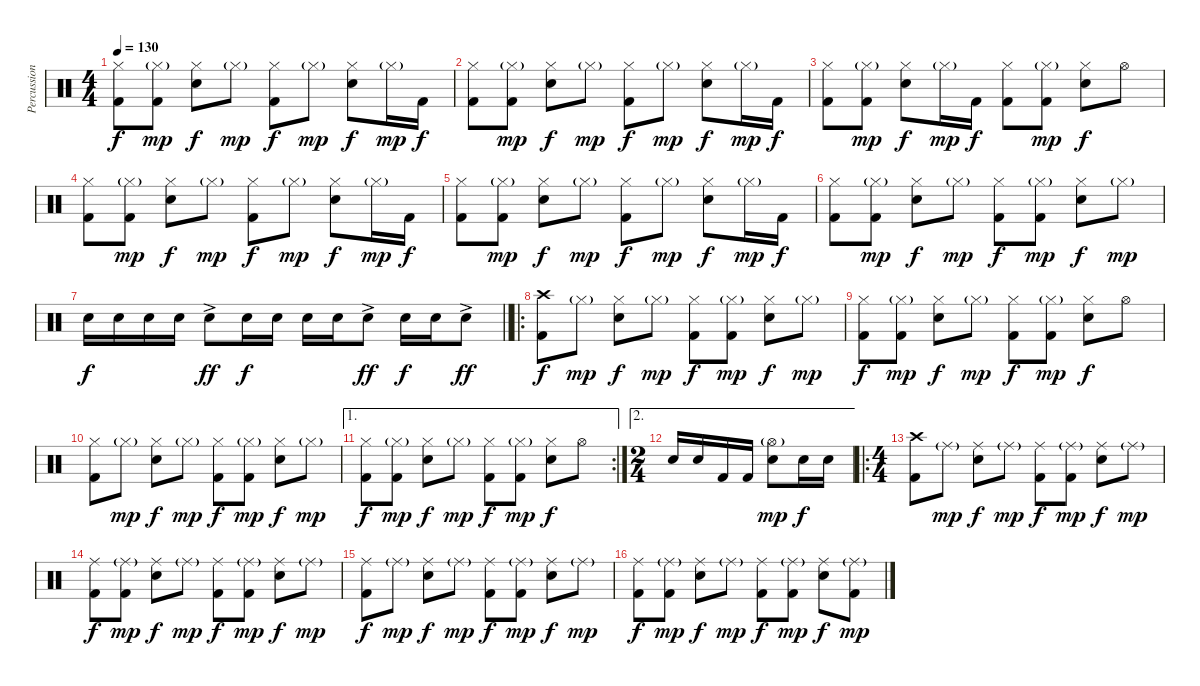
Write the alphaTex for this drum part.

\track ("Percussion" "Percussion") {instrument percussion}
\staff {score}
\articulation defaults
\ts (4 4)
\tempo 130
\clef neutral
\ks c
("Hi-Hat (closed)" "Kick (hit) 2").8{dy f} ("Hi-Hat (closed)"{g} "Kick (hit) 2").8{dy mp} ("Hi-Hat (closed)" "Electric Snare (hit)").8{dy f} "Hi-Hat (closed)"{g}.8{dy mp} ("Hi-Hat (closed)" "Kick (hit) 2").8{dy f} "Hi-Hat (closed)"{g}.8{dy mp} ("Hi-Hat (closed)" "Electric Snare (hit)").8{dy f} "Hi-Hat (closed)"{g}.16{dy mp} "Kick (hit) 2".16{dy f} |
("Hi-Hat (closed)" "Kick (hit) 2").8 ("Hi-Hat (closed)"{g} "Kick (hit) 2").8{dy mp} ("Hi-Hat (closed)" "Electric Snare (hit)").8{dy f} "Hi-Hat (closed)"{g}.8{dy mp} ("Hi-Hat (closed)" "Kick (hit) 2").8{dy f} "Hi-Hat (closed)"{g}.8{dy mp} ("Hi-Hat (closed)" "Electric Snare (hit)").8{dy f} "Hi-Hat (closed)"{g}.16{dy mp} "Kick (hit) 2".16{dy f} |
("Hi-Hat (closed)" "Kick (hit) 2").8 ("Hi-Hat (closed)"{g} "Kick (hit) 2").8{dy mp} ("Hi-Hat (closed)" "Electric Snare (hit)").8{dy f} "Hi-Hat (closed)"{g}.16{dy mp} "Kick (hit) 2".16{dy f} ("Hi-Hat (closed)" "Kick (hit) 2").8 ("Hi-Hat (closed)"{g} "Kick (hit) 2").8{dy mp} ("Hi-Hat (closed)" "Electric Snare (hit)").8{dy f} "Hi-Hat (open)".8 |
("Hi-Hat (closed)" "Kick (hit) 2").8 ("Hi-Hat (closed)"{g} "Kick (hit) 2").8{dy mp} ("Hi-Hat (closed)" "Electric Snare (hit)").8{dy f} "Hi-Hat (closed)"{g}.8{dy mp} ("Hi-Hat (closed)" "Kick (hit) 2").8{dy f} "Hi-Hat (closed)"{g}.8{dy mp} ("Hi-Hat (closed)" "Electric Snare (hit)").8{dy f} "Hi-Hat (closed)"{g}.16{dy mp} "Kick (hit) 2".16{dy f} |
("Hi-Hat (closed)" "Kick (hit) 2").8 ("Hi-Hat (closed)"{g} "Kick (hit) 2").8{dy mp} ("Hi-Hat (closed)" "Electric Snare (hit)").8{dy f} "Hi-Hat (closed)"{g}.8{dy mp} ("Hi-Hat (closed)" "Kick (hit) 2").8{dy f} "Hi-Hat (closed)"{g}.8{dy mp} ("Hi-Hat (closed)" "Electric Snare (hit)").8{dy f} "Hi-Hat (closed)"{g}.16{dy mp} "Kick (hit) 2".16{dy f} |
("Hi-Hat (closed)" "Kick (hit) 2").8 ("Hi-Hat (closed)"{g} "Kick (hit) 2").8{dy mp} ("Hi-Hat (closed)" "Electric Snare (hit)").8{dy f} "Hi-Hat (closed)"{g}.8{dy mp} ("Hi-Hat (closed)" "Kick (hit) 2").8{dy f} ("Hi-Hat (closed)"{g} "Kick (hit) 2").8{dy mp} ("Hi-Hat (closed)" "Electric Snare (hit)").8{dy f} "Hi-Hat (closed)"{g}.8{dy mp} |
\barLineRight lightlight "Electric Snare (hit)".16{dy f} "Electric Snare (hit)".16 "Electric Snare (hit)".16 "Electric Snare (hit)".16 "Electric Snare (hit)"{ac}.8{dy ff} "Electric Snare (hit)".16{dy f} "Electric Snare (hit)".16 "Electric Snare (hit)".16 "Electric Snare (hit)".16 "Electric Snare (hit)"{ac}.8{dy ff} "Electric Snare (hit)".16{dy f} "Electric Snare (hit)".16 "Electric Snare (hit)"{ac}.8{dy ff}
|
\ro
("Crash high (hit)" "Kick (hit) 2").8{dy f} "Hi-Hat (closed)"{g}.8{dy mp} ("Hi-Hat (closed)" "Electric Snare (hit)").8{dy f} "Hi-Hat (closed)"{g}.8{dy mp} ("Hi-Hat (closed)" "Kick (hit) 2").8{dy f} ("Hi-Hat (closed)"{g} "Kick (hit) 2").8{dy mp} ("Hi-Hat (closed)" "Electric Snare (hit)").8{dy f} "Hi-Hat (closed)"{g}.8{dy mp} |
("Hi-Hat (closed)" "Kick (hit) 2").8{dy f} ("Hi-Hat (closed)"{g} "Kick (hit) 2").8{dy mp} ("Hi-Hat (closed)" "Electric Snare (hit)").8{dy f} "Hi-Hat (closed)"{g}.8{dy mp} ("Hi-Hat (closed)" "Kick (hit) 2").8{dy f} ("Hi-Hat (closed)"{g} "Kick (hit) 2").8{dy mp} ("Hi-Hat (closed)" "Electric Snare (hit)").8{dy f} "Hi-Hat (open)".8 |
("Hi-Hat (closed)" "Kick (hit) 2").8 "Hi-Hat (closed)"{g}.8{dy mp} ("Hi-Hat (closed)" "Electric Snare (hit)").8{dy f} "Hi-Hat (closed)"{g}.8{dy mp} ("Hi-Hat (closed)" "Kick (hit) 2").8{dy f} ("Hi-Hat (closed)"{g} "Kick (hit) 2").8{dy mp} ("Hi-Hat (closed)" "Electric Snare (hit)").8{dy f} "Hi-Hat (closed)"{g}.8{dy mp} |
\ae 1
\rc 2
("Hi-Hat (closed)" "Kick (hit) 2").8{dy f} ("Hi-Hat (closed)"{g} "Kick (hit) 2").8{dy mp} ("Hi-Hat (closed)" "Electric Snare (hit)").8{dy f} "Hi-Hat (closed)"{g}.8{dy mp} ("Hi-Hat (closed)" "Kick (hit) 2").8{dy f} ("Hi-Hat (closed)"{g} "Kick (hit) 2").8{dy mp} ("Hi-Hat (closed)" "Electric Snare (hit)").8{dy f} "Hi-Hat (open)".8 |
\ae 2
\ts (2 4)
"Electric Snare (hit)".16 "Electric Snare (hit)".16 "Kick (hit) 2".16 "Kick (hit) 2".16 ("Hi-Hat (open)"{g} "Electric Snare (hit)").8{dy mp} "Electric Snare (hit)".16{dy f} "Electric Snare (hit)".16 |
\ro
\ts (4 4)
("Crash high (hit)" "Kick (hit) 2").8 "Ride (middle)"{g}.8{dy mp} ("Ride (middle)" "Electric Snare (hit)").8{dy f} "Ride (middle)"{g}.8{dy mp} ("Ride (middle)" "Kick (hit) 2").8{dy f} ("Ride (middle)"{g} "Kick (hit) 2").8{dy mp} ("Ride (middle)" "Electric Snare (hit)").8{dy f} "Ride (middle)"{g}.8{dy mp} |
("Ride (middle)" "Kick (hit) 2").8{dy f} ("Ride (middle)"{g} "Kick (hit) 2").8{dy mp} ("Ride (middle)" "Electric Snare (hit)").8{dy f} "Ride (middle)"{g}.8{dy mp} ("Ride (middle)" "Kick (hit) 2").8{dy f} ("Ride (middle)"{g} "Kick (hit) 2").8{dy mp} ("Ride (middle)" "Electric Snare (hit)").8{dy f} "Ride (middle)"{g}.8{dy mp} |
("Ride (middle)" "Kick (hit) 2").8{dy f} "Ride (middle)"{g}.8{dy mp} ("Ride (middle)" "Electric Snare (hit)").8{dy f} "Ride (middle)"{g}.8{dy mp} ("Ride (middle)" "Kick (hit) 2").8{dy f} ("Ride (middle)"{g} "Kick (hit) 2").8{dy mp} ("Ride (middle)" "Electric Snare (hit)").8{dy f} "Ride (middle)"{g}.8{dy mp} |
("Ride (middle)" "Kick (hit) 2").8{dy f} ("Ride (middle)"{g} "Kick (hit) 2").8{dy mp} ("Ride (middle)" "Electric Snare (hit)").8{dy f} "Ride (middle)"{g}.8{dy mp} ("Ride (middle)" "Kick (hit) 2").8{dy f} ("Ride (middle)"{g} "Kick (hit) 2").8{dy mp} ("Ride (middle)" "Electric Snare (hit)").8{dy f} ("Ride (middle)"{g} "Kick (hit) 2").8{dy mp}
